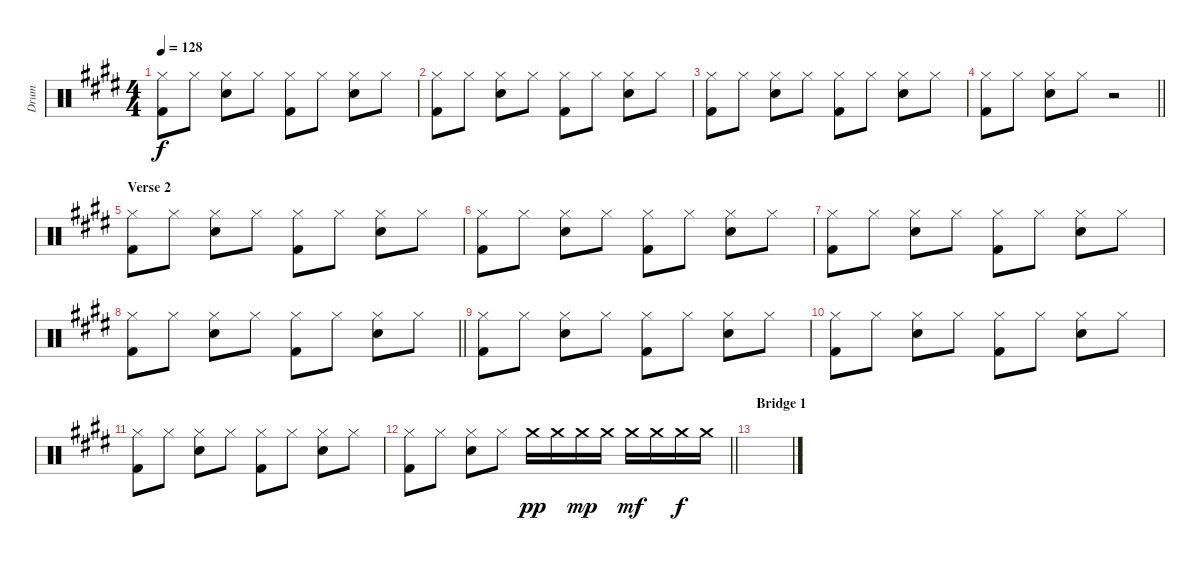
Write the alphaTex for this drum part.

\track ("Drum" "Drum") {instrument percussion}
\staff {score}
\articulation defaults
\ts (4 4)
\tempo 128
\clef neutral
\ks c#minor
("Hi-Hat (closed)" "Kick (hit) 2").8{dy f} "Hi-Hat (closed)".8 ("Hi-Hat (closed)" "Snare (hit) 2").8 "Hi-Hat (closed)".8 ("Hi-Hat (closed)" "Kick (hit) 2").8 "Hi-Hat (closed)".8 ("Hi-Hat (closed)" "Snare (hit) 2").8 "Hi-Hat (closed)".8 |
("Hi-Hat (closed)" "Kick (hit) 2").8 "Hi-Hat (closed)".8 ("Hi-Hat (closed)" "Snare (hit) 2").8 "Hi-Hat (closed)".8 ("Hi-Hat (closed)" "Kick (hit) 2").8 "Hi-Hat (closed)".8 ("Hi-Hat (closed)" "Snare (hit) 2").8 "Hi-Hat (closed)".8 |
("Hi-Hat (closed)" "Kick (hit) 2").8 "Hi-Hat (closed)".8 ("Hi-Hat (closed)" "Snare (hit) 2").8 "Hi-Hat (closed)".8 ("Hi-Hat (closed)" "Kick (hit) 2").8 "Hi-Hat (closed)".8 ("Hi-Hat (closed)" "Snare (hit) 2").8 "Hi-Hat (closed)".8 |
\barLineRight lightlight
("Hi-Hat (closed)" "Kick (hit) 2").8 "Hi-Hat (closed)".8 ("Hi-Hat (closed)" "Snare (hit) 2").8 "Hi-Hat (closed)".8 r.2 |
\section ("" "Verse 2")
("Hi-Hat (closed)" "Kick (hit) 2").8 "Hi-Hat (closed)".8 ("Hi-Hat (closed)" "Snare (hit) 2").8 "Hi-Hat (closed)".8 ("Hi-Hat (closed)" "Kick (hit) 2").8 "Hi-Hat (closed)".8 ("Hi-Hat (closed)" "Snare (hit) 2").8 "Hi-Hat (closed)".8 |
("Hi-Hat (closed)" "Kick (hit) 2").8 "Hi-Hat (closed)".8 ("Hi-Hat (closed)" "Snare (hit) 2").8 "Hi-Hat (closed)".8 ("Hi-Hat (closed)" "Kick (hit) 2").8 "Hi-Hat (closed)".8 ("Hi-Hat (closed)" "Snare (hit) 2").8 "Hi-Hat (closed)".8 |
("Hi-Hat (closed)" "Kick (hit) 2").8 "Hi-Hat (closed)".8 ("Hi-Hat (closed)" "Snare (hit) 2").8 "Hi-Hat (closed)".8 ("Hi-Hat (closed)" "Kick (hit) 2").8 "Hi-Hat (closed)".8 ("Hi-Hat (closed)" "Snare (hit) 2").8 "Hi-Hat (closed)".8 |
\barLineRight lightlight
("Hi-Hat (closed)" "Kick (hit) 2").8 "Hi-Hat (closed)".8 ("Hi-Hat (closed)" "Snare (hit) 2").8 "Hi-Hat (closed)".8 ("Hi-Hat (closed)" "Kick (hit) 2").8 "Hi-Hat (closed)".8 ("Hi-Hat (closed)" "Snare (hit) 2").8 "Hi-Hat (closed)".8 |
("Hi-Hat (closed)" "Kick (hit) 2").8 "Hi-Hat (closed)".8 ("Hi-Hat (closed)" "Snare (hit) 2").8 "Hi-Hat (closed)".8 ("Hi-Hat (closed)" "Kick (hit) 2").8 "Hi-Hat (closed)".8 ("Hi-Hat (closed)" "Snare (hit) 2").8 "Hi-Hat (closed)".8 |
("Hi-Hat (closed)" "Kick (hit) 2").8 "Hi-Hat (closed)".8 ("Hi-Hat (closed)" "Snare (hit) 2").8 "Hi-Hat (closed)".8 ("Hi-Hat (closed)" "Kick (hit) 2").8 "Hi-Hat (closed)".8 ("Hi-Hat (closed)" "Snare (hit) 2").8 "Hi-Hat (closed)".8 |
("Hi-Hat (closed)" "Kick (hit) 2").8 "Hi-Hat (closed)".8 ("Hi-Hat (closed)" "Snare (hit) 2").8 "Hi-Hat (closed)".8 ("Hi-Hat (closed)" "Kick (hit) 2").8 "Hi-Hat (closed)".8 ("Hi-Hat (closed)" "Snare (hit) 2").8 "Hi-Hat (closed)".8 |
\barLineRight lightlight
("Hi-Hat (closed)" "Kick (hit) 2").8 "Hi-Hat (closed)".8 ("Hi-Hat (closed)" "Snare (hit) 2").8 "Hi-Hat (closed)".8 "Crash medium (hit)".16{dy pp} "Crash medium (hit)".16 "Crash medium (hit)".16{dy mp} "Crash medium (hit)".16 "Crash medium (hit)".16{dy mf} "Crash medium (hit)".16 "Crash medium (hit)".16{dy f} "Crash medium (hit)".16 |
\section ("" "Bridge 1")
